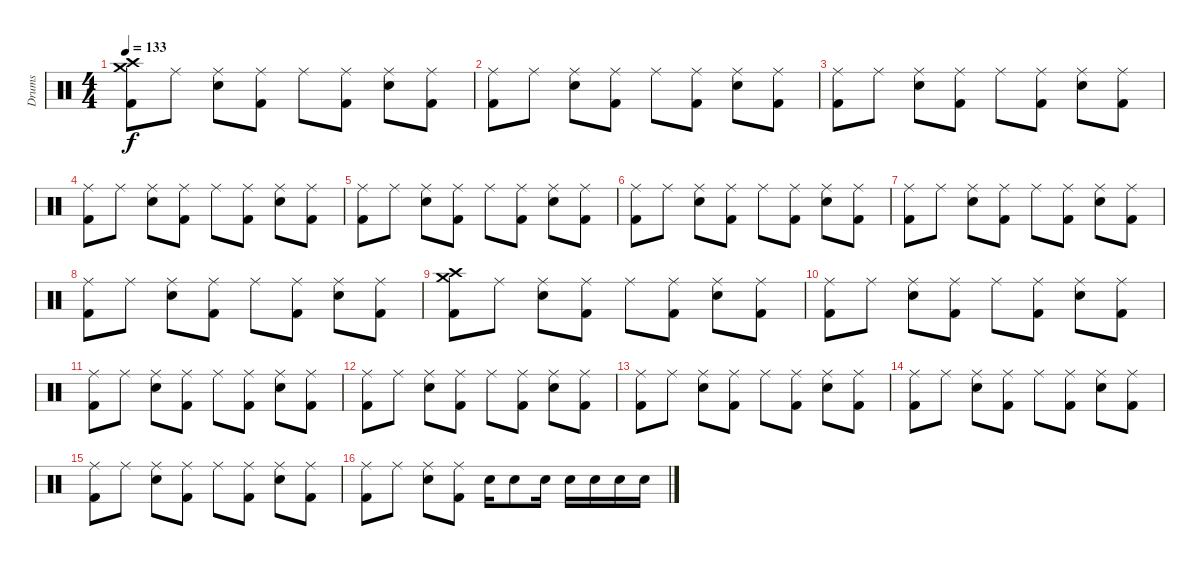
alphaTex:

\track ("Drums" "Drums") {instrument percussion}
\staff {score}
\articulation defaults
\ts (4 4)
\tempo 133
\clef neutral
\ks c
("Crash high (hit)" "Crash medium (hit)" "Kick (hit) 2").8{dy f} "Ride (middle)".8 ("Ride (middle)" "Snare (hit) 2").8 ("Ride (middle)" "Kick (hit) 2").8 "Ride (middle)".8 ("Ride (middle)" "Kick (hit) 2").8 ("Ride (middle)" "Snare (hit) 2").8 ("Ride (middle)" "Kick (hit) 2").8 |
("Ride (middle)" "Kick (hit) 2").8 "Ride (middle)".8 ("Ride (middle)" "Snare (hit) 2").8 ("Ride (middle)" "Kick (hit) 2").8 "Ride (middle)".8 ("Ride (middle)" "Kick (hit) 2").8 ("Ride (middle)" "Snare (hit) 2").8 ("Ride (middle)" "Kick (hit) 2").8 |
("Ride (middle)" "Kick (hit) 2").8 "Ride (middle)".8 ("Ride (middle)" "Snare (hit) 2").8 ("Ride (middle)" "Kick (hit) 2").8 "Ride (middle)".8 ("Ride (middle)" "Kick (hit) 2").8 ("Ride (middle)" "Snare (hit) 2").8 ("Ride (middle)" "Kick (hit) 2").8 |
("Ride (middle)" "Kick (hit) 2").8 "Ride (middle)".8 ("Ride (middle)" "Snare (hit) 2").8 ("Ride (middle)" "Kick (hit) 2").8 "Ride (middle)".8 ("Ride (middle)" "Kick (hit) 2").8 ("Ride (middle)" "Snare (hit) 2").8 ("Ride (middle)" "Kick (hit) 2").8 |
("Ride (middle)" "Kick (hit) 2").8 "Ride (middle)".8 ("Ride (middle)" "Snare (hit) 2").8 ("Ride (middle)" "Kick (hit) 2").8 "Ride (middle)".8 ("Ride (middle)" "Kick (hit) 2").8 ("Ride (middle)" "Snare (hit) 2").8 ("Ride (middle)" "Kick (hit) 2").8 |
("Ride (middle)" "Kick (hit) 2").8 "Ride (middle)".8 ("Ride (middle)" "Snare (hit) 2").8 ("Ride (middle)" "Kick (hit) 2").8 "Ride (middle)".8 ("Ride (middle)" "Kick (hit) 2").8 ("Ride (middle)" "Snare (hit) 2").8 ("Ride (middle)" "Kick (hit) 2").8 |
("Ride (middle)" "Kick (hit) 2").8 "Ride (middle)".8 ("Ride (middle)" "Snare (hit) 2").8 ("Ride (middle)" "Kick (hit) 2").8 "Ride (middle)".8 ("Ride (middle)" "Kick (hit) 2").8 ("Ride (middle)" "Snare (hit) 2").8 ("Ride (middle)" "Kick (hit) 2").8 |
("Ride (middle)" "Kick (hit) 2").8 "Ride (middle)".8 ("Ride (middle)" "Snare (hit) 2").8 ("Ride (middle)" "Kick (hit) 2").8 "Ride (middle)".8 ("Ride (middle)" "Kick (hit) 2").8 ("Ride (middle)" "Snare (hit) 2").8 ("Ride (middle)" "Kick (hit) 2").8 |
("Crash high (hit)" "Crash medium (hit)" "Kick (hit) 2").8 "Ride (middle)".8 ("Ride (middle)" "Snare (hit) 2").8 ("Ride (middle)" "Kick (hit) 2").8 "Ride (middle)".8 ("Ride (middle)" "Kick (hit) 2").8 ("Ride (middle)" "Snare (hit) 2").8 ("Ride (middle)" "Kick (hit) 2").8 |
("Ride (middle)" "Kick (hit) 2").8 "Ride (middle)".8 ("Ride (middle)" "Snare (hit) 2").8 ("Ride (middle)" "Kick (hit) 2").8 "Ride (middle)".8 ("Ride (middle)" "Kick (hit) 2").8 ("Ride (middle)" "Snare (hit) 2").8 ("Ride (middle)" "Kick (hit) 2").8 |
("Ride (middle)" "Kick (hit) 2").8 "Ride (middle)".8 ("Ride (middle)" "Snare (hit) 2").8 ("Ride (middle)" "Kick (hit) 2").8 "Ride (middle)".8 ("Ride (middle)" "Kick (hit) 2").8 ("Ride (middle)" "Snare (hit) 2").8 ("Ride (middle)" "Kick (hit) 2").8 |
("Ride (middle)" "Kick (hit) 2").8 "Ride (middle)".8 ("Ride (middle)" "Snare (hit) 2").8 ("Ride (middle)" "Kick (hit) 2").8 "Ride (middle)".8 ("Ride (middle)" "Kick (hit) 2").8 ("Ride (middle)" "Snare (hit) 2").8 ("Ride (middle)" "Kick (hit) 2").8 |
("Ride (middle)" "Kick (hit) 2").8 "Ride (middle)".8 ("Ride (middle)" "Snare (hit) 2").8 ("Ride (middle)" "Kick (hit) 2").8 "Ride (middle)".8 ("Ride (middle)" "Kick (hit) 2").8 ("Ride (middle)" "Snare (hit) 2").8 ("Ride (middle)" "Kick (hit) 2").8 |
("Ride (middle)" "Kick (hit) 2").8 "Ride (middle)".8 ("Ride (middle)" "Snare (hit) 2").8 ("Ride (middle)" "Kick (hit) 2").8 "Ride (middle)".8 ("Ride (middle)" "Kick (hit) 2").8 ("Ride (middle)" "Snare (hit) 2").8 ("Ride (middle)" "Kick (hit) 2").8 |
("Ride (middle)" "Kick (hit) 2").8 "Ride (middle)".8 ("Ride (middle)" "Snare (hit) 2").8 ("Ride (middle)" "Kick (hit) 2").8 "Ride (middle)".8 ("Ride (middle)" "Kick (hit) 2").8 ("Ride (middle)" "Snare (hit) 2").8 ("Ride (middle)" "Kick (hit) 2").8 |
("Ride (middle)" "Kick (hit) 2").8 "Ride (middle)".8 ("Ride (middle)" "Snare (hit) 2").8 ("Ride (middle)" "Kick (hit) 2").8 "Snare (hit) 2".16 "Snare (hit) 2".8 "Snare (hit) 2".16 "Snare (hit) 2".16 "Snare (hit) 2".16 "Snare (hit) 2".16 "Snare (hit) 2".16
